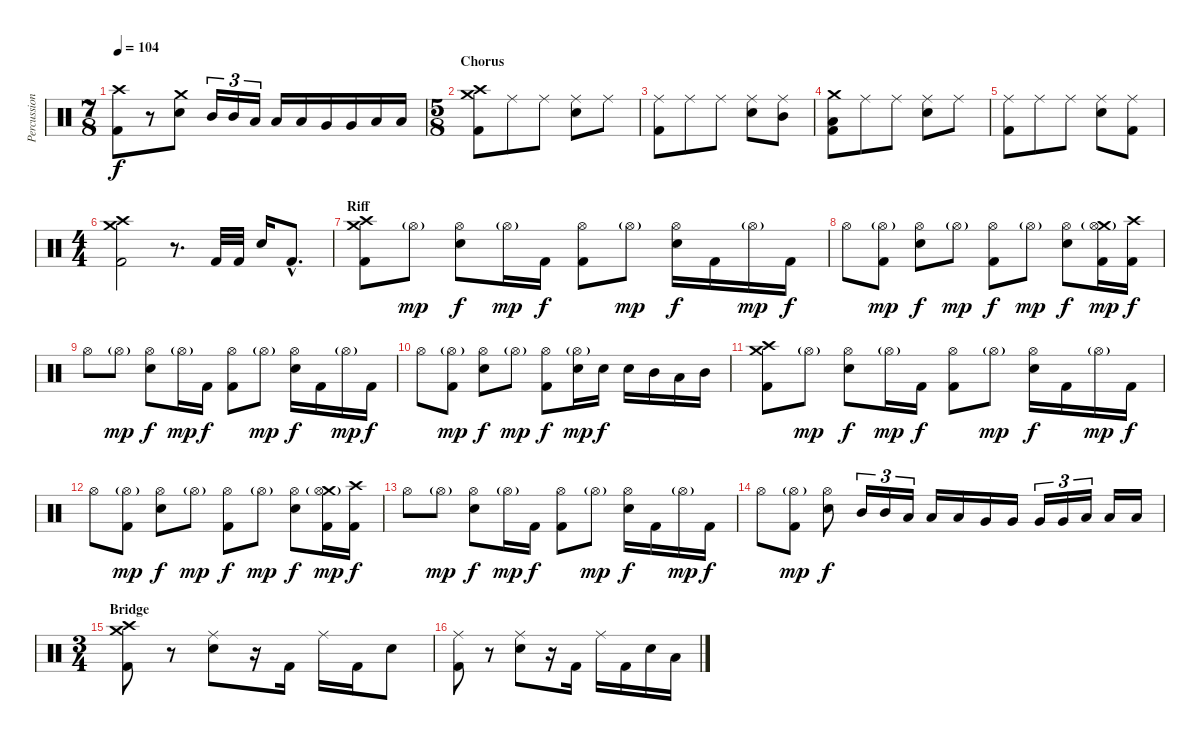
\track ("Percussions" "Percussion") {instrument percussion}
\staff {score}
\articulation defaults
\ts (7 8)
\tempo 104
\clef neutral
\ks c
("Crash high (hit)" "Kick (hit) 2").8{dy f} r.8 ("Crash medium (hit)" "Electric Snare (hit)").8 "Mid Tom (hit)".16{tu (3 2)} "Mid Tom (hit)".16{tu (3 2)} "Low Tom (hit)".16{tu (3 2)} "Low Tom (hit)".16 "Low Tom (hit)".16 "Very Low Tom (hit)".16 "Very Low Tom (hit)".16 "Low Floor Tom (hit)".16 "Low Floor Tom (hit)".16 |
\ts (5 8)
\section ("" "Chorus")
("Crash high (hit)" "Crash medium (hit)" "Kick (hit) 2").8 "Ride (middle)".8 "Ride (middle)".8 ("Ride (middle)" "Electric Snare (hit)").8 "Ride (middle)".8 |
("Ride (middle)" "Kick (hit) 2").8 "Ride (middle)".8 "Ride (middle)".8 ("Ride (middle)" "Electric Snare (hit)").8 ("Ride (middle)" "Mid Tom (hit)").8 |
("Crash medium (hit)" "Low Tom (hit)" "Kick (hit) 2").8 "Ride (middle)".8 "Ride (middle)".8 ("Ride (middle)" "Electric Snare (hit)").8 "Ride (middle)".8 |
("Ride (middle)" "Kick (hit) 2").8 "Ride (middle)".8 "Ride (middle)".8 ("Ride (middle)" "Electric Snare (hit)").8 ("Ride (middle)" "Kick (hit) 2").8 |
\ts (4 4)
("Crash medium (hit)" "Crash high (hit)" "Kick (hit) 2").2 r.8{d} "Kick (hit) 2".32 "Kick (hit) 2".32 "Electric Snare (hit)".16 "Kick (hit) 2"{hac}.8{d} |
\section ("" "Riff")
("Crash high (hit)" "Crash medium (hit)" "Kick (hit) 2").8 "Hi-Hat (open)"{g}.8{dy mp} ("Hi-Hat (open)" "Electric Snare (hit)").8{dy f} "Hi-Hat (open)"{g}.16{dy mp} "Kick (hit) 2".16{dy f} ("Hi-Hat (open)" "Kick (hit) 2").8 "Hi-Hat (open)"{g}.8{dy mp} ("Hi-Hat (open)" "Electric Snare (hit)").16{dy f} "Kick (hit) 2".16 "Hi-Hat (open)"{g}.16{dy mp} "Kick (hit) 2".16{dy f} |
"Hi-Hat (open)".8 ("Hi-Hat (open)"{g} "Kick (hit) 2").8{dy mp} ("Hi-Hat (open)" "Electric Snare (hit)").8{dy f} "Hi-Hat (open)"{g}.8{dy mp} ("Hi-Hat (open)" "Kick (hit) 2").8{dy f} "Hi-Hat (open)"{g}.8{dy mp} ("Hi-Hat (open)" "Electric Snare (hit)").8{dy f} ("Crash medium (hit)" "Hi-Hat (open)"{g} "Kick (hit) 2").16{dy mp} ("Crash high (hit)" "Kick (hit) 2").16{dy f} |
"Hi-Hat (open)".8 "Hi-Hat (open)"{g}.8{dy mp} ("Hi-Hat (open)" "Electric Snare (hit)").8{dy f} "Hi-Hat (open)"{g}.16{dy mp} "Kick (hit) 2".16{dy f} ("Hi-Hat (open)" "Kick (hit) 2").8 "Hi-Hat (open)"{g}.8{dy mp} ("Hi-Hat (open)" "Electric Snare (hit)").16{dy f} "Kick (hit) 2".16 "Hi-Hat (open)"{g}.16{dy mp} "Kick (hit) 2".16{dy f} |
"Hi-Hat (open)".8 ("Hi-Hat (open)"{g} "Kick (hit) 2").8{dy mp} ("Hi-Hat (open)" "Electric Snare (hit)").8{dy f} "Hi-Hat (open)"{g}.8{dy mp} ("Hi-Hat (open)" "Kick (hit) 2").8{dy f} ("Hi-Hat (open)"{g} "Electric Snare (hit)").16{dy mp} "Electric Snare (hit)".16{dy f} "Electric Snare (hit)".16 "Mid Tom (hit)".16 "Low Tom (hit)".16 "Mid Tom (hit)".16 |
("Crash high (hit)" "Crash medium (hit)" "Kick (hit) 2").8 "Hi-Hat (open)"{g}.8{dy mp} ("Hi-Hat (open)" "Electric Snare (hit)").8{dy f} "Hi-Hat (open)"{g}.16{dy mp} "Kick (hit) 2".16{dy f} ("Hi-Hat (open)" "Kick (hit) 2").8 "Hi-Hat (open)"{g}.8{dy mp} ("Hi-Hat (open)" "Electric Snare (hit)").16{dy f} "Kick (hit) 2".16 "Hi-Hat (open)"{g}.16{dy mp} "Kick (hit) 2".16{dy f} |
"Hi-Hat (open)".8 ("Hi-Hat (open)"{g} "Kick (hit) 2").8{dy mp} ("Hi-Hat (open)" "Electric Snare (hit)").8{dy f} "Hi-Hat (open)"{g}.8{dy mp} ("Hi-Hat (open)" "Kick (hit) 2").8{dy f} "Hi-Hat (open)"{g}.8{dy mp} ("Hi-Hat (open)" "Electric Snare (hit)").8{dy f} ("Crash medium (hit)" "Hi-Hat (open)"{g} "Kick (hit) 2").16{dy mp} ("Crash high (hit)" "Kick (hit) 2").16{dy f} |
"Hi-Hat (open)".8 "Hi-Hat (open)"{g}.8{dy mp} ("Hi-Hat (open)" "Electric Snare (hit)").8{dy f} "Hi-Hat (open)"{g}.16{dy mp} "Kick (hit) 2".16{dy f} ("Hi-Hat (open)" "Kick (hit) 2").8 "Hi-Hat (open)"{g}.8{dy mp} ("Hi-Hat (open)" "Electric Snare (hit)").16{dy f} "Kick (hit) 2".16 "Hi-Hat (open)"{g}.16{dy mp} "Kick (hit) 2".16{dy f} |
"Hi-Hat (open)".8 ("Hi-Hat (open)"{g} "Kick (hit) 2").8{dy mp} ("Hi-Hat (open)" "Electric Snare (hit)").8{dy f} "Mid Tom (hit)".16{tu (3 2)} "Mid Tom (hit)".16{tu (3 2)} "Low Tom (hit)".16{tu (3 2)} "Low Tom (hit)".16 "Low Tom (hit)".16 "Very Low Tom (hit)".16 "Very Low Tom (hit)".16 "Very Low Tom (hit)".16{tu (3 2)} "Very Low Tom (hit)".16{tu (3 2)} "Low Floor Tom (hit)".16{tu (3 2)} "Low Floor Tom (hit)".16 "Low Floor Tom (hit)".16 |
\ts (3 4)
\section ("" "Bridge")
("Crash high (hit)" "Crash medium (hit)" "Kick (hit) 2").8 r.8 ("Ride (middle)" "Electric Snare (hit)").8 r.16 "Kick (hit) 2".16 "Ride (middle)".16 "Kick (hit) 2".16 "Electric Snare (hit)".8 |
("Ride (middle)" "Kick (hit) 2").8 r.8 ("Ride (middle)" "Electric Snare (hit)").8 r.16 "Kick (hit) 2".16 "Ride (middle)".16 "Kick (hit) 2".16 "Electric Snare (hit)".16 "Low Tom (hit)".16
